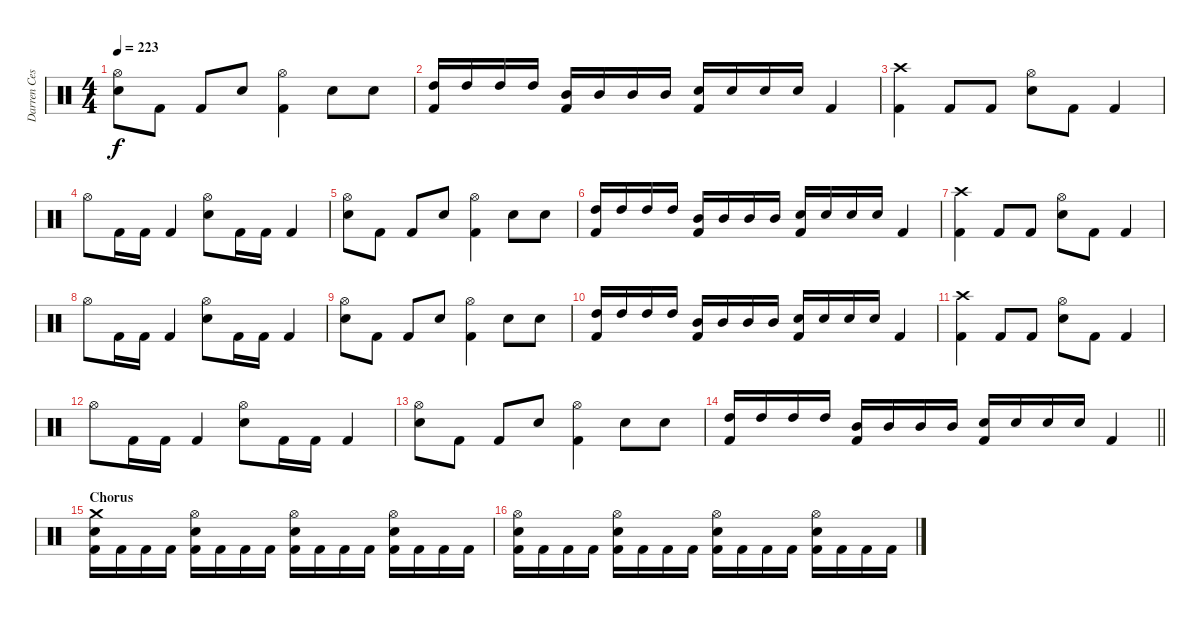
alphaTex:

\track ("Darren Cesca" "Darren Ces") {instrument percussion}
\staff {score}
\articulation defaults
\ts (4 4)
\tempo 223
\clef neutral
\ks c
("Hi-Hat (open)" "Electric Snare (hit)").8{dy f} "Kick (hit) 2".8 "Kick (hit) 2".8 "Electric Snare (hit)".8 ("Hi-Hat (open)" "Kick (hit) 2").4 "Electric Snare (hit)".8 "Electric Snare (hit)".8 |
("High Tom (hit)" "Kick (hit) 2").16 "High Tom (hit)".16 "High Tom (hit)".16 "High Tom (hit)".16 ("Mid Tom (hit)" "Kick (hit) 2").16 "Mid Tom (hit)".16 "Mid Tom (hit)".16 "Mid Tom (hit)".16 ("Electric Snare (hit)" "Kick (hit) 2").16 "Electric Snare (hit)".16 "Electric Snare (hit)".16 "Electric Snare (hit)".16 "Kick (hit) 2".4 |
("Crash high (hit)" "Kick (hit) 2").4 "Kick (hit) 2".8 "Kick (hit) 2".8 ("Hi-Hat (open)" "Electric Snare (hit)").8 "Kick (hit) 2".8 "Kick (hit) 2".4 |
"Hi-Hat (open)".8 "Kick (hit) 2".16 "Kick (hit) 2".16 "Kick (hit) 2".4 ("Hi-Hat (open)" "Electric Snare (hit)").8 "Kick (hit) 2".16 "Kick (hit) 2".16 "Kick (hit) 2".4 |
("Hi-Hat (open)" "Electric Snare (hit)").8 "Kick (hit) 2".8 "Kick (hit) 2".8 "Electric Snare (hit)".8 ("Hi-Hat (open)" "Kick (hit) 2").4 "Electric Snare (hit)".8 "Electric Snare (hit)".8 |
("High Tom (hit)" "Kick (hit) 2").16 "High Tom (hit)".16 "High Tom (hit)".16 "High Tom (hit)".16 ("Mid Tom (hit)" "Kick (hit) 2").16 "Mid Tom (hit)".16 "Mid Tom (hit)".16 "Mid Tom (hit)".16 ("Electric Snare (hit)" "Kick (hit) 2").16 "Electric Snare (hit)".16 "Electric Snare (hit)".16 "Electric Snare (hit)".16 "Kick (hit) 2".4 |
("Crash high (hit)" "Kick (hit) 2").4 "Kick (hit) 2".8 "Kick (hit) 2".8 ("Hi-Hat (open)" "Electric Snare (hit)").8 "Kick (hit) 2".8 "Kick (hit) 2".4 |
"Hi-Hat (open)".8 "Kick (hit) 2".16 "Kick (hit) 2".16 "Kick (hit) 2".4 ("Hi-Hat (open)" "Electric Snare (hit)").8 "Kick (hit) 2".16 "Kick (hit) 2".16 "Kick (hit) 2".4 |
("Hi-Hat (open)" "Electric Snare (hit)").8 "Kick (hit) 2".8 "Kick (hit) 2".8 "Electric Snare (hit)".8 ("Hi-Hat (open)" "Kick (hit) 2").4 "Electric Snare (hit)".8 "Electric Snare (hit)".8 |
("High Tom (hit)" "Kick (hit) 2").16 "High Tom (hit)".16 "High Tom (hit)".16 "High Tom (hit)".16 ("Mid Tom (hit)" "Kick (hit) 2").16 "Mid Tom (hit)".16 "Mid Tom (hit)".16 "Mid Tom (hit)".16 ("Electric Snare (hit)" "Kick (hit) 2").16 "Electric Snare (hit)".16 "Electric Snare (hit)".16 "Electric Snare (hit)".16 "Kick (hit) 2".4 |
("Crash high (hit)" "Kick (hit) 2").4 "Kick (hit) 2".8 "Kick (hit) 2".8 ("Hi-Hat (open)" "Electric Snare (hit)").8 "Kick (hit) 2".8 "Kick (hit) 2".4 |
"Hi-Hat (open)".8 "Kick (hit) 2".16 "Kick (hit) 2".16 "Kick (hit) 2".4 ("Hi-Hat (open)" "Electric Snare (hit)").8 "Kick (hit) 2".16 "Kick (hit) 2".16 "Kick (hit) 2".4 |
("Hi-Hat (open)" "Electric Snare (hit)").8 "Kick (hit) 2".8 "Kick (hit) 2".8 "Electric Snare (hit)".8 ("Hi-Hat (open)" "Kick (hit) 2").4 "Electric Snare (hit)".8 "Electric Snare (hit)".8 |
\barLineRight lightlight
("High Tom (hit)" "Kick (hit) 2").16 "High Tom (hit)".16 "High Tom (hit)".16 "High Tom (hit)".16 ("Mid Tom (hit)" "Kick (hit) 2").16 "Mid Tom (hit)".16 "Mid Tom (hit)".16 "Mid Tom (hit)".16 ("Electric Snare (hit)" "Kick (hit) 2").16 "Electric Snare (hit)".16 "Electric Snare (hit)".16 "Electric Snare (hit)".16 "Kick (hit) 2".4 |
\section ("" "Chorus")
("Crash medium (hit)" "Electric Snare (hit)" "Kick (hit) 2").16 "Kick (hit) 2".16 "Kick (hit) 2".16 "Kick (hit) 2".16 ("Hi-Hat (open)" "Electric Snare (hit)" "Kick (hit) 2").16 "Kick (hit) 2".16 "Kick (hit) 2".16 "Kick (hit) 2".16 ("Hi-Hat (open)" "Electric Snare (hit)" "Kick (hit) 2").16 "Kick (hit) 2".16 "Kick (hit) 2".16 "Kick (hit) 2".16 ("Hi-Hat (open)" "Electric Snare (hit)" "Kick (hit) 2").16 "Kick (hit) 2".16 "Kick (hit) 2".16 "Kick (hit) 2".16 |
("Hi-Hat (open)" "Electric Snare (hit)" "Kick (hit) 2").16 "Kick (hit) 2".16 "Kick (hit) 2".16 "Kick (hit) 2".16 ("Hi-Hat (open)" "Electric Snare (hit)" "Kick (hit) 2").16 "Kick (hit) 2".16 "Kick (hit) 2".16 "Kick (hit) 2".16 ("Hi-Hat (open)" "Electric Snare (hit)" "Kick (hit) 2").16 "Kick (hit) 2".16 "Kick (hit) 2".16 "Kick (hit) 2".16 ("Hi-Hat (open)" "Electric Snare (hit)" "Kick (hit) 2").16 "Kick (hit) 2".16 "Kick (hit) 2".16 "Kick (hit) 2".16
